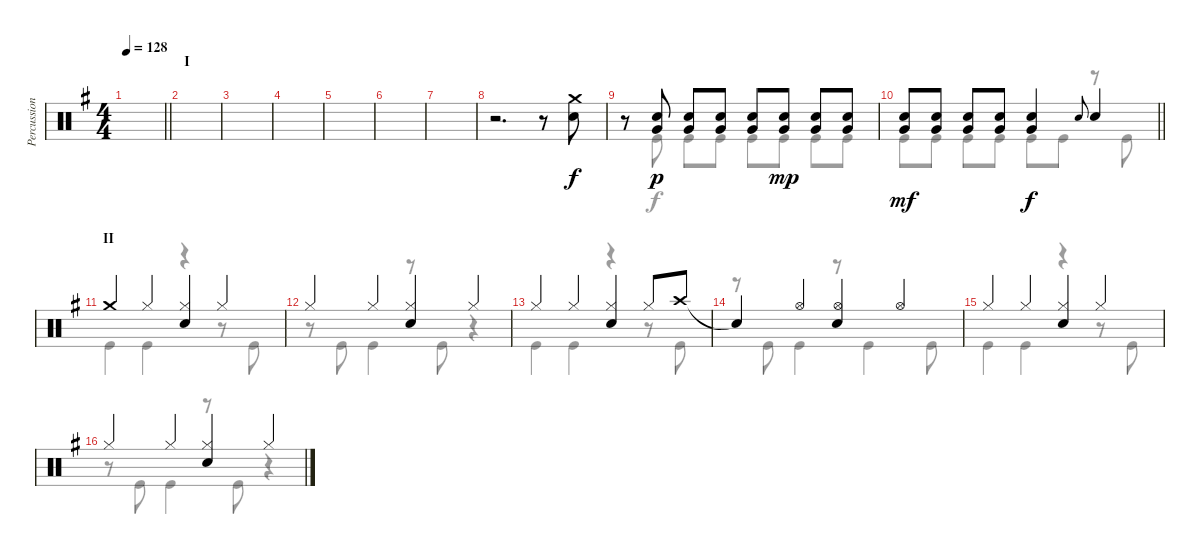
\track ("Percussion" "Percussion") {instrument percussion}
\staff {score}
\articulation defaults
\voice
\ts (4 4)
\tempo 128
\clef neutral
\barLineRight lightlight
\ks eminor
|
\section ("" "I")
|
|
|
|
|
|
r.2{d} r.8 ("Crash medium (hit)" "Electric Snare (hit)").8 |
r.8 ("Very Low Tom (hit)" "Electric Snare (hit)").8{dy p} ("Very Low Tom (hit)" "Electric Snare (hit)").8 ("Very Low Tom (hit)" "Electric Snare (hit)").8 ("Very Low Tom (hit)" "Electric Snare (hit)").8 ("Very Low Tom (hit)" "Electric Snare (hit)").8{dy mp} ("Very Low Tom (hit)" "Electric Snare (hit)").8 ("Very Low Tom (hit)" "Electric Snare (hit)").8 |
\barLineRight lightlight
("Very Low Tom (hit)" "Electric Snare (hit)").8{dy mf} ("Very Low Tom (hit)" "Electric Snare (hit)").8 ("Very Low Tom (hit)" "Electric Snare (hit)").8 ("Very Low Tom (hit)" "Electric Snare (hit)").8 ("Very Low Tom (hit)" "Electric Snare (hit)").4{dy f} "Electric Snare (hit)".8{gr onbeat} "Electric Snare (hit)".4 |
\section ("" "II")
"Crash medium (hit)".4 "Hi-Hat (closed)".4 ("Hi-Hat (closed)" "Electric Snare (hit)").4 "Hi-Hat (closed)".4 |
"Hi-Hat (closed)".4 "Hi-Hat (closed)".4 ("Hi-Hat (closed)" "Electric Snare (hit)").4 "Hi-Hat (closed)".4 |
"Hi-Hat (closed)".4 "Hi-Hat (closed)".4 ("Hi-Hat (closed)" "Electric Snare (hit)").4 "Hi-Hat (closed)".8 "Crash high (hit)".8 |
"Snare (hit)"{t}.4 "Hi-Hat (open)".4 ("Hi-Hat (open)" "Electric Snare (hit)").4 "Hi-Hat (open)".4 |
"Hi-Hat (closed)".4 "Hi-Hat (closed)".4 ("Hi-Hat (closed)" "Electric Snare (hit)").4 "Hi-Hat (closed)".4 |
"Hi-Hat (closed)".4 "Hi-Hat (closed)".4 ("Hi-Hat (closed)" "Electric Snare (hit)").4 "Hi-Hat (closed)".4
\voice
\clef neutral
\ottava regular
\simile none
\barLineRight lightlight
\ks eminor
|
|
|
|
|
|
|
|
r.8 "Kick (hit)".8 "Kick (hit)".8 "Kick (hit)".8 "Kick (hit)".8 "Kick (hit)".8 "Kick (hit)".8 "Kick (hit)".8 |
\barLineRight lightlight "Kick (hit)".8 "Kick (hit)".8 "Kick (hit)".8 "Kick (hit)".8 "Kick (hit)".8 "Kick (hit)".8
r.8 "Kick (hit)".8 |
"Kick (hit)".4 "Kick (hit)".4 r.4 r.8 "Kick (hit)".8 |
r.8 "Kick (hit)".8 "Kick (hit)".4 r.8 "Kick (hit)".8 r.4 |
"Kick (hit)".4 "Kick (hit)".4 r.4 r.8 "Kick (hit)".8 |
r.8 "Kick (hit)".8 "Kick (hit)".4 r.8 "Kick (hit)".4 "Kick (hit)".8 |
"Kick (hit)".4 "Kick (hit)".4 r.4 r.8 "Kick (hit)".8 |
r.8 "Kick (hit)".8 "Kick (hit)".4 r.8 "Kick (hit)".8 r.4
